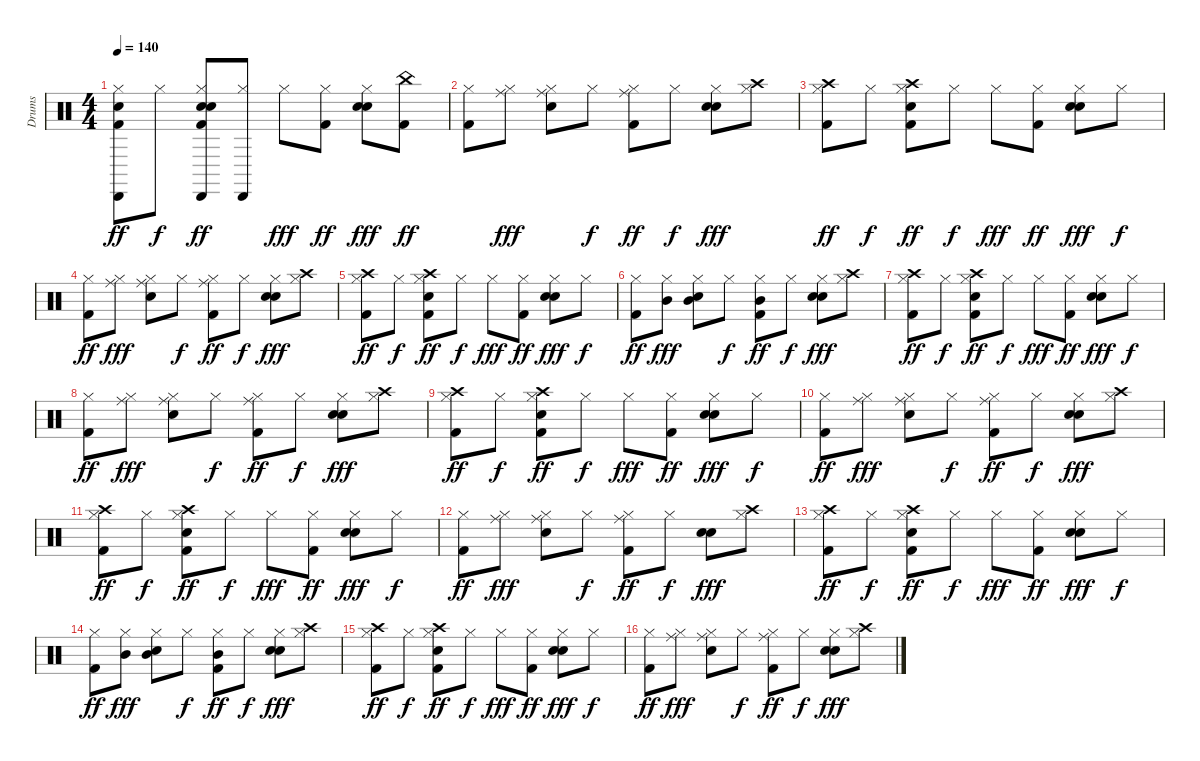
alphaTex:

\track ("Drums" "Drums") {instrument percussion}
\staff {score}
\articulation defaults
\ts (4 4)
\tempo 140
\clef neutral
\ks c
("Hi-Hat (closed)" "Cabasa (hit)" "Hand Clap (hit)" "Kick (hit) 2").8{dy ff} "Hi-Hat (closed)".8{dy f} ("Hi-Hat (closed)" "Snare (hit) 2" "Cabasa (hit)" "Hand Clap (hit)" "Kick (hit) 2").8{dy ff} ("Hi-Hat (closed)" "Cabasa (hit)").8 "Hi-Hat (closed)".8{dy fff} ("Hi-Hat (closed)" "Kick (hit) 2").8{dy ff} ("Hi-Hat (closed)" "Snare (hit) 2" "Hand Clap (hit)").8{dy fff} ("China (hit)" "Kick (hit) 2").8{dy ff} |
("Hi-Hat (closed)" "Kick (hit) 2").8 ("Hi-Hat (closed)" "Ride (middle)").8{dy fff} ("Hi-Hat (closed)" "Ride (middle)" "Snare (hit) 2").8 "Hi-Hat (closed)".8{dy f} ("Hi-Hat (closed)" "Ride (middle)" "Kick (hit) 2").8{dy ff} "Hi-Hat (closed)".8{dy f} ("Hi-Hat (closed)" "Snare (hit) 2" "Hand Clap (hit)").8{dy fff} ("Hi-Hat (closed)" "Crash high (hit)").8 |
("Hi-Hat (closed)" "Crash high (hit)" "Kick (hit) 2").8{dy ff} "Hi-Hat (closed)".8{dy f} ("Hi-Hat (closed)" "Crash high (hit)" "Snare (hit) 2" "Kick (hit) 2").8{dy ff} "Hi-Hat (closed)".8{dy f} "Hi-Hat (closed)".8{dy fff} ("Hi-Hat (closed)" "Kick (hit) 2").8{dy ff} ("Hi-Hat (closed)" "Snare (hit) 2" "Hand Clap (hit)").8{dy fff} "Hi-Hat (closed)".8{dy f} |
("Hi-Hat (closed)" "Kick (hit) 2").8{dy ff} ("Hi-Hat (closed)" "Ride (middle)").8{dy fff} ("Hi-Hat (closed)" "Ride (middle)" "Snare (hit) 2").8 "Hi-Hat (closed)".8{dy f} ("Hi-Hat (closed)" "Ride (middle)" "Kick (hit) 2").8{dy ff} "Hi-Hat (closed)".8{dy f} ("Hi-Hat (closed)" "Snare (hit) 2" "Hand Clap (hit)").8{dy fff} ("Hi-Hat (closed)" "Crash high (hit)").8 |
("Hi-Hat (closed)" "Crash high (hit)" "Kick (hit) 2").8{dy ff} "Hi-Hat (closed)".8{dy f} ("Hi-Hat (closed)" "Crash high (hit)" "Snare (hit) 2" "Kick (hit) 2").8{dy ff} "Hi-Hat (closed)".8{dy f} "Hi-Hat (closed)".8{dy fff} ("Hi-Hat (closed)" "Kick (hit) 2").8{dy ff} ("Hi-Hat (closed)" "Snare (hit) 2" "Hand Clap (hit)").8{dy fff} "Hi-Hat (closed)".8{dy f} |
("Hi-Hat (closed)" "Kick (hit) 2").8{dy ff} ("Hi-Hat (closed)" "Mid Tom (hit)").8{dy fff} ("Hi-Hat (closed)" "Mid Tom (hit)" "Snare (hit) 2").8 "Hi-Hat (closed)".8{dy f} ("Hi-Hat (closed)" "Mid Tom (hit)" "Kick (hit) 2").8{dy ff} "Hi-Hat (closed)".8{dy f} ("Hi-Hat (closed)" "Snare (hit) 2" "Hand Clap (hit)").8{dy fff} ("Hi-Hat (closed)" "Crash high (hit)").8 |
("Hi-Hat (closed)" "Crash high (hit)" "Kick (hit) 2").8{dy ff} "Hi-Hat (closed)".8{dy f} ("Hi-Hat (closed)" "Crash high (hit)" "Snare (hit) 2" "Kick (hit) 2").8{dy ff} "Hi-Hat (closed)".8{dy f} "Hi-Hat (closed)".8{dy fff} ("Hi-Hat (closed)" "Kick (hit) 2").8{dy ff} ("Hi-Hat (closed)" "Snare (hit) 2" "Hand Clap (hit)").8{dy fff} "Hi-Hat (closed)".8{dy f} |
("Hi-Hat (closed)" "Kick (hit) 2").8{dy ff} ("Hi-Hat (closed)" "Ride (middle)").8{dy fff} ("Hi-Hat (closed)" "Ride (middle)" "Snare (hit) 2").8 "Hi-Hat (closed)".8{dy f} ("Hi-Hat (closed)" "Ride (middle)" "Kick (hit) 2").8{dy ff} "Hi-Hat (closed)".8{dy f} ("Hi-Hat (closed)" "Snare (hit) 2" "Hand Clap (hit)").8{dy fff} ("Hi-Hat (closed)" "Crash high (hit)").8 |
("Hi-Hat (closed)" "Crash high (hit)" "Kick (hit) 2").8{dy ff} "Hi-Hat (closed)".8{dy f} ("Hi-Hat (closed)" "Crash high (hit)" "Snare (hit) 2" "Kick (hit) 2").8{dy ff} "Hi-Hat (closed)".8{dy f} "Hi-Hat (closed)".8{dy fff} ("Hi-Hat (closed)" "Kick (hit) 2").8{dy ff} ("Hi-Hat (closed)" "Snare (hit) 2" "Hand Clap (hit)").8{dy fff} "Hi-Hat (closed)".8{dy f} |
("Hi-Hat (closed)" "Kick (hit) 2").8{dy ff} ("Hi-Hat (closed)" "Ride (middle)").8{dy fff} ("Hi-Hat (closed)" "Ride (middle)" "Snare (hit) 2").8 "Hi-Hat (closed)".8{dy f} ("Hi-Hat (closed)" "Ride (middle)" "Kick (hit) 2").8{dy ff} "Hi-Hat (closed)".8{dy f} ("Hi-Hat (closed)" "Snare (hit) 2" "Hand Clap (hit)").8{dy fff} ("Hi-Hat (closed)" "Crash high (hit)").8 |
("Hi-Hat (closed)" "Crash high (hit)" "Kick (hit) 2").8{dy ff} "Hi-Hat (closed)".8{dy f} ("Hi-Hat (closed)" "Crash high (hit)" "Snare (hit) 2" "Kick (hit) 2").8{dy ff} "Hi-Hat (closed)".8{dy f} "Hi-Hat (closed)".8{dy fff} ("Hi-Hat (closed)" "Kick (hit) 2").8{dy ff} ("Hi-Hat (closed)" "Snare (hit) 2" "Hand Clap (hit)").8{dy fff} "Hi-Hat (closed)".8{dy f} |
("Hi-Hat (closed)" "Kick (hit) 2").8{dy ff} ("Hi-Hat (closed)" "Ride (middle)").8{dy fff} ("Hi-Hat (closed)" "Ride (middle)" "Snare (hit) 2").8 "Hi-Hat (closed)".8{dy f} ("Hi-Hat (closed)" "Ride (middle)" "Kick (hit) 2").8{dy ff} "Hi-Hat (closed)".8{dy f} ("Snare (hit) 2" "Hand Clap (hit)").8{dy fff} ("Hi-Hat (closed)" "Crash high (hit)").8 |
("Crash high (hit)" "Hi-Hat (closed)" "Kick (hit) 2").8{dy ff} "Hi-Hat (closed)".8{dy f} ("Crash high (hit)" "Hi-Hat (closed)" "Snare (hit) 2" "Kick (hit) 2").8{dy ff} "Hi-Hat (closed)".8{dy f} "Hi-Hat (closed)".8{dy fff} ("Hi-Hat (closed)" "Kick (hit) 2").8{dy ff} ("Hi-Hat (closed)" "Snare (hit) 2" "Hand Clap (hit)").8{dy fff} "Hi-Hat (closed)".8{dy f} |
("Hi-Hat (closed)" "Kick (hit) 2").8{dy ff} ("Mid Tom (hit)" "Hi-Hat (closed)").8{dy fff} ("Mid Tom (hit)" "Hi-Hat (closed)" "Snare (hit) 2").8 "Hi-Hat (closed)".8{dy f} ("Mid Tom (hit)" "Hi-Hat (closed)" "Kick (hit) 2").8{dy ff} "Hi-Hat (closed)".8{dy f} ("Hi-Hat (closed)" "Snare (hit) 2" "Hand Clap (hit)").8{dy fff} ("Hi-Hat (closed)" "Crash high (hit)").8 |
("Hi-Hat (closed)" "Crash high (hit)" "Kick (hit) 2").8{dy ff} "Hi-Hat (closed)".8{dy f} ("Hi-Hat (closed)" "Crash high (hit)" "Snare (hit) 2" "Kick (hit) 2").8{dy ff} "Hi-Hat (closed)".8{dy f} "Hi-Hat (closed)".8{dy fff} ("Hi-Hat (closed)" "Kick (hit) 2").8{dy ff} ("Hi-Hat (closed)" "Snare (hit) 2" "Hand Clap (hit)").8{dy fff} "Hi-Hat (closed)".8{dy f} |
("Hi-Hat (closed)" "Kick (hit) 2").8{dy ff} ("Hi-Hat (closed)" "Ride (middle)").8{dy fff} ("Hi-Hat (closed)" "Ride (middle)" "Snare (hit) 2").8 "Hi-Hat (closed)".8{dy f} ("Hi-Hat (closed)" "Ride (middle)" "Kick (hit) 2").8{dy ff} "Hi-Hat (closed)".8{dy f} ("Hi-Hat (closed)" "Snare (hit) 2" "Hand Clap (hit)").8{dy fff} ("Hi-Hat (closed)" "Crash high (hit)").8
